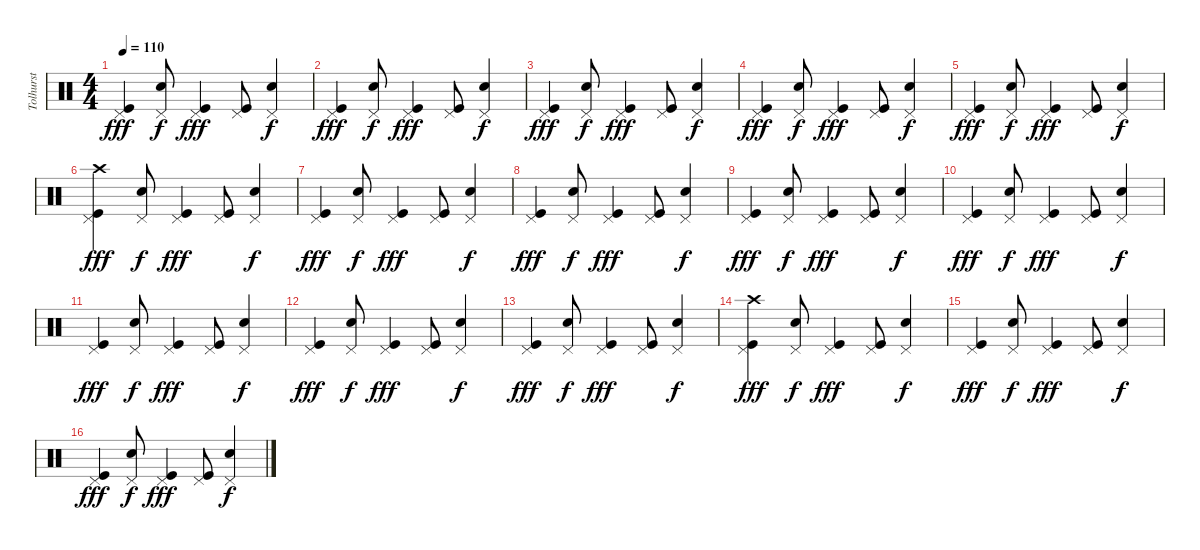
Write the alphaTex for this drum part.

\track ("Tolhurst" "Tolhurst") {instrument percussion}
\staff {score}
\articulation defaults
\ts (4 4)
\tempo 110
\clef neutral
\ks c
("Pedal Hi-Hat (hit)" "Kick (hit)").4{dy fff} ("Pedal Hi-Hat (hit)" "Electric Snare (hit)").8{dy f} ("Pedal Hi-Hat (hit)" "Kick (hit)").4{dy fff} ("Pedal Hi-Hat (hit)" "Kick (hit)").8 ("Pedal Hi-Hat (hit)" "Electric Snare (hit)").4{dy f} |
("Pedal Hi-Hat (hit)" "Kick (hit)").4{dy fff} ("Pedal Hi-Hat (hit)" "Electric Snare (hit)").8{dy f} ("Pedal Hi-Hat (hit)" "Kick (hit)").4{dy fff} ("Pedal Hi-Hat (hit)" "Kick (hit)").8 ("Pedal Hi-Hat (hit)" "Electric Snare (hit)").4{dy f} |
("Pedal Hi-Hat (hit)" "Kick (hit)").4{dy fff} ("Pedal Hi-Hat (hit)" "Electric Snare (hit)").8{dy f} ("Pedal Hi-Hat (hit)" "Kick (hit)").4{dy fff} ("Pedal Hi-Hat (hit)" "Kick (hit)").8 ("Pedal Hi-Hat (hit)" "Electric Snare (hit)").4{dy f} |
("Pedal Hi-Hat (hit)" "Kick (hit)").4{dy fff} ("Pedal Hi-Hat (hit)" "Electric Snare (hit)").8{dy f} ("Pedal Hi-Hat (hit)" "Kick (hit)").4{dy fff} ("Pedal Hi-Hat (hit)" "Kick (hit)").8 ("Pedal Hi-Hat (hit)" "Electric Snare (hit)").4{dy f} |
("Pedal Hi-Hat (hit)" "Kick (hit)").4{dy fff} ("Pedal Hi-Hat (hit)" "Electric Snare (hit)").8{dy f} ("Pedal Hi-Hat (hit)" "Kick (hit)").4{dy fff} ("Pedal Hi-Hat (hit)" "Kick (hit)").8 ("Pedal Hi-Hat (hit)" "Electric Snare (hit)").4{dy f} |
("Crash high (hit)" "Pedal Hi-Hat (hit)" "Kick (hit)").4{dy fff} ("Pedal Hi-Hat (hit)" "Electric Snare (hit)").8{dy f} ("Pedal Hi-Hat (hit)" "Kick (hit)").4{dy fff} ("Pedal Hi-Hat (hit)" "Kick (hit)").8 ("Pedal Hi-Hat (hit)" "Electric Snare (hit)").4{dy f} |
("Pedal Hi-Hat (hit)" "Kick (hit)").4{dy fff} ("Pedal Hi-Hat (hit)" "Electric Snare (hit)").8{dy f} ("Pedal Hi-Hat (hit)" "Kick (hit)").4{dy fff} ("Pedal Hi-Hat (hit)" "Kick (hit)").8 ("Pedal Hi-Hat (hit)" "Electric Snare (hit)").4{dy f} |
("Pedal Hi-Hat (hit)" "Kick (hit)").4{dy fff} ("Pedal Hi-Hat (hit)" "Electric Snare (hit)").8{dy f} ("Pedal Hi-Hat (hit)" "Kick (hit)").4{dy fff} ("Pedal Hi-Hat (hit)" "Kick (hit)").8 ("Pedal Hi-Hat (hit)" "Electric Snare (hit)").4{dy f} |
("Pedal Hi-Hat (hit)" "Kick (hit)").4{dy fff} ("Pedal Hi-Hat (hit)" "Electric Snare (hit)").8{dy f} ("Pedal Hi-Hat (hit)" "Kick (hit)").4{dy fff} ("Pedal Hi-Hat (hit)" "Kick (hit)").8 ("Pedal Hi-Hat (hit)" "Electric Snare (hit)").4{dy f} |
("Pedal Hi-Hat (hit)" "Kick (hit)").4{dy fff} ("Pedal Hi-Hat (hit)" "Electric Snare (hit)").8{dy f} ("Pedal Hi-Hat (hit)" "Kick (hit)").4{dy fff} ("Pedal Hi-Hat (hit)" "Kick (hit)").8 ("Pedal Hi-Hat (hit)" "Electric Snare (hit)").4{dy f} |
("Pedal Hi-Hat (hit)" "Kick (hit)").4{dy fff} ("Pedal Hi-Hat (hit)" "Electric Snare (hit)").8{dy f} ("Pedal Hi-Hat (hit)" "Kick (hit)").4{dy fff} ("Pedal Hi-Hat (hit)" "Kick (hit)").8 ("Pedal Hi-Hat (hit)" "Electric Snare (hit)").4{dy f} |
("Pedal Hi-Hat (hit)" "Kick (hit)").4{dy fff} ("Pedal Hi-Hat (hit)" "Electric Snare (hit)").8{dy f} ("Pedal Hi-Hat (hit)" "Kick (hit)").4{dy fff} ("Pedal Hi-Hat (hit)" "Kick (hit)").8 ("Pedal Hi-Hat (hit)" "Electric Snare (hit)").4{dy f} |
("Pedal Hi-Hat (hit)" "Kick (hit)").4{dy fff} ("Pedal Hi-Hat (hit)" "Electric Snare (hit)").8{dy f} ("Pedal Hi-Hat (hit)" "Kick (hit)").4{dy fff} ("Pedal Hi-Hat (hit)" "Kick (hit)").8 ("Pedal Hi-Hat (hit)" "Electric Snare (hit)").4{dy f} |
("Crash high (hit)" "Pedal Hi-Hat (hit)" "Kick (hit)").4{dy fff} ("Pedal Hi-Hat (hit)" "Electric Snare (hit)").8{dy f} ("Pedal Hi-Hat (hit)" "Kick (hit)").4{dy fff} ("Pedal Hi-Hat (hit)" "Kick (hit)").8 ("Pedal Hi-Hat (hit)" "Electric Snare (hit)").4{dy f} |
("Pedal Hi-Hat (hit)" "Kick (hit)").4{dy fff} ("Pedal Hi-Hat (hit)" "Electric Snare (hit)").8{dy f} ("Pedal Hi-Hat (hit)" "Kick (hit)").4{dy fff} ("Pedal Hi-Hat (hit)" "Kick (hit)").8 ("Pedal Hi-Hat (hit)" "Electric Snare (hit)").4{dy f} |
("Pedal Hi-Hat (hit)" "Kick (hit)").4{dy fff} ("Pedal Hi-Hat (hit)" "Electric Snare (hit)").8{dy f} ("Pedal Hi-Hat (hit)" "Kick (hit)").4{dy fff} ("Pedal Hi-Hat (hit)" "Kick (hit)").8 ("Pedal Hi-Hat (hit)" "Electric Snare (hit)").4{dy f}
